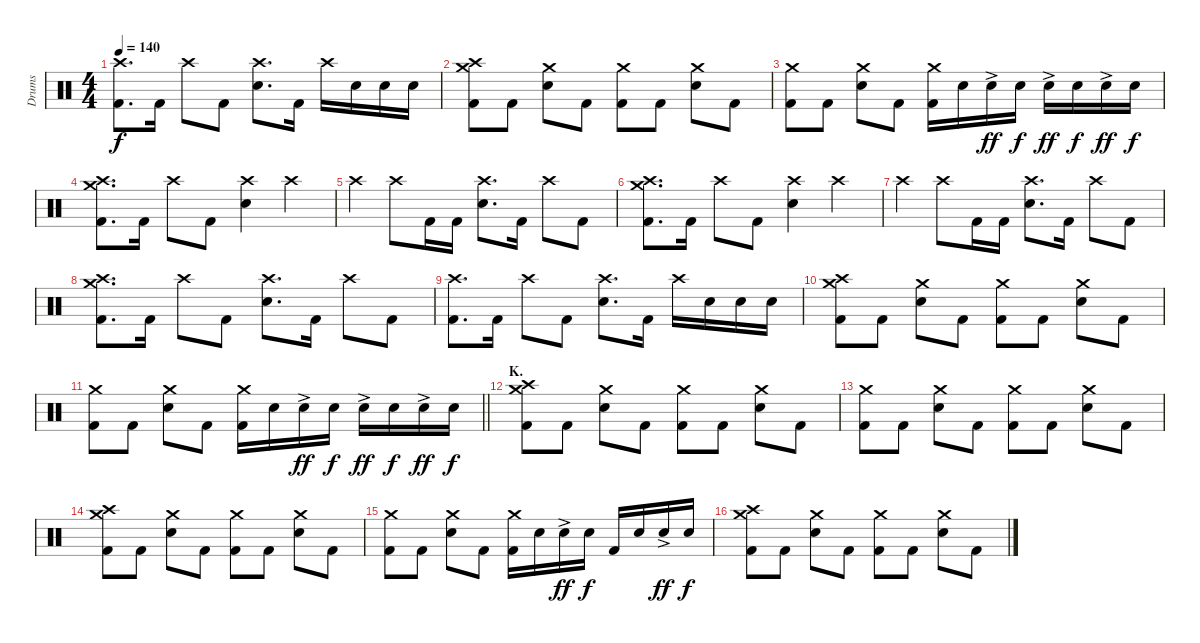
\track ("Drums" "Drums") {instrument percussion}
\staff {score}
\articulation defaults
\ts (4 4)
\tempo 140
\clef neutral
\ks c
("Crash high (hit)" "Kick (hit) 2").8{d dy f} "Kick (hit) 2".16 "Crash high (hit)".8 "Kick (hit) 2".8 ("Crash high (hit)" "Electric Snare (hit)").8{d} "Kick (hit) 2".16 "Crash high (hit)".16 "Electric Snare (hit)".16 "Electric Snare (hit)".16 "Electric Snare (hit)".16 |
("Crash medium (hit)" "Crash high (hit)" "Kick (hit) 2").8 "Kick (hit) 2".8 ("Crash medium (hit)" "Electric Snare (hit)").8 "Kick (hit) 2".8 ("Crash medium (hit)" "Kick (hit) 2").8 "Kick (hit) 2".8 ("Crash medium (hit)" "Electric Snare (hit)").8 "Kick (hit) 2".8 |
("Crash medium (hit)" "Kick (hit) 2").8 "Kick (hit) 2".8 ("Crash medium (hit)" "Electric Snare (hit)").8 "Kick (hit) 2".8 ("Crash medium (hit)" "Kick (hit) 2").16 "Electric Snare (hit)".16 "Electric Snare (hit)"{ac}.16{dy ff} "Electric Snare (hit)".16{dy f} "Electric Snare (hit)"{ac}.16{dy ff} "Electric Snare (hit)".16{dy f} "Electric Snare (hit)"{ac}.16{dy ff} "Electric Snare (hit)".16{dy f} |
("Crash medium (hit)" "Crash high (hit)" "Kick (hit) 2").8{d} "Kick (hit) 2".16 "Crash high (hit)".8 "Kick (hit) 2".8 ("Crash high (hit)" "Electric Snare (hit)").4 "Crash high (hit)".4 |
"Crash high (hit)".4 "Crash high (hit)".8 "Kick (hit) 2".16 "Kick (hit) 2".16 ("Crash high (hit)" "Electric Snare (hit)").8{d} "Kick (hit) 2".16 "Crash high (hit)".8 "Kick (hit) 2".8 |
("Crash medium (hit)" "Crash high (hit)" "Kick (hit) 2").8{d} "Kick (hit) 2".16 "Crash high (hit)".8 "Kick (hit) 2".8 ("Crash high (hit)" "Electric Snare (hit)").4 "Crash high (hit)".4 |
"Crash high (hit)".4 "Crash high (hit)".8 "Kick (hit) 2".16 "Kick (hit) 2".16 ("Crash high (hit)" "Electric Snare (hit)").8{d} "Kick (hit) 2".16 "Crash high (hit)".8 "Kick (hit) 2".8 |
("Crash medium (hit)" "Crash high (hit)" "Kick (hit) 2").8{d} "Kick (hit) 2".16 "Crash high (hit)".8 "Kick (hit) 2".8 ("Crash high (hit)" "Electric Snare (hit)").8{d} "Kick (hit) 2".16 "Crash high (hit)".8 "Kick (hit) 2".8 |
("Crash high (hit)" "Kick (hit) 2").8{d} "Kick (hit) 2".16 "Crash high (hit)".8 "Kick (hit) 2".8 ("Crash high (hit)" "Electric Snare (hit)").8{d} "Kick (hit) 2".16 "Crash high (hit)".16 "Electric Snare (hit)".16 "Electric Snare (hit)".16 "Electric Snare (hit)".16 |
("Crash medium (hit)" "Crash high (hit)" "Kick (hit) 2").8 "Kick (hit) 2".8 ("Crash medium (hit)" "Electric Snare (hit)").8 "Kick (hit) 2".8 ("Crash medium (hit)" "Kick (hit) 2").8 "Kick (hit) 2".8 ("Crash medium (hit)" "Electric Snare (hit)").8 "Kick (hit) 2".8 |
\barLineRight lightlight
("Crash medium (hit)" "Kick (hit) 2").8 "Kick (hit) 2".8 ("Crash medium (hit)" "Electric Snare (hit)").8 "Kick (hit) 2".8 ("Crash medium (hit)" "Kick (hit) 2").16 "Electric Snare (hit)".16 "Electric Snare (hit)"{ac}.16{dy ff} "Electric Snare (hit)".16{dy f} "Electric Snare (hit)"{ac}.16{dy ff} "Electric Snare (hit)".16{dy f} "Electric Snare (hit)"{ac}.16{dy ff} "Electric Snare (hit)".16{dy f} |
\section ("" "K.")
("Crash medium (hit)" "Crash high (hit)" "Kick (hit) 2").8 "Kick (hit) 2".8 ("Crash medium (hit)" "Electric Snare (hit)").8 "Kick (hit) 2".8 ("Crash medium (hit)" "Kick (hit) 2").8 "Kick (hit) 2".8 ("Crash medium (hit)" "Electric Snare (hit)").8 "Kick (hit) 2".8 |
("Crash medium (hit)" "Kick (hit) 2").8 "Kick (hit) 2".8 ("Crash medium (hit)" "Electric Snare (hit)").8 "Kick (hit) 2".8 ("Crash medium (hit)" "Kick (hit) 2").8 "Kick (hit) 2".8 ("Crash medium (hit)" "Electric Snare (hit)").8 "Kick (hit) 2".8 |
("Crash medium (hit)" "Crash high (hit)" "Kick (hit) 2").8 "Kick (hit) 2".8 ("Crash medium (hit)" "Electric Snare (hit)").8 "Kick (hit) 2".8 ("Crash medium (hit)" "Kick (hit) 2").8 "Kick (hit) 2".8 ("Crash medium (hit)" "Electric Snare (hit)").8 "Kick (hit) 2".8 |
("Crash medium (hit)" "Kick (hit) 2").8 "Kick (hit) 2".8 ("Crash medium (hit)" "Electric Snare (hit)").8 "Kick (hit) 2".8 ("Crash medium (hit)" "Kick (hit) 2").16 "Electric Snare (hit)".16 "Electric Snare (hit)"{ac}.16{dy ff} "Electric Snare (hit)".16{dy f} "Kick (hit) 2".16 "Electric Snare (hit)".16 "Electric Snare (hit)"{ac}.16{dy ff} "Electric Snare (hit)".16{dy f} |
("Crash medium (hit)" "Crash high (hit)" "Kick (hit) 2").8 "Kick (hit) 2".8 ("Crash medium (hit)" "Electric Snare (hit)").8 "Kick (hit) 2".8 ("Crash medium (hit)" "Kick (hit) 2").8 "Kick (hit) 2".8 ("Crash medium (hit)" "Electric Snare (hit)").8 "Kick (hit) 2".8
